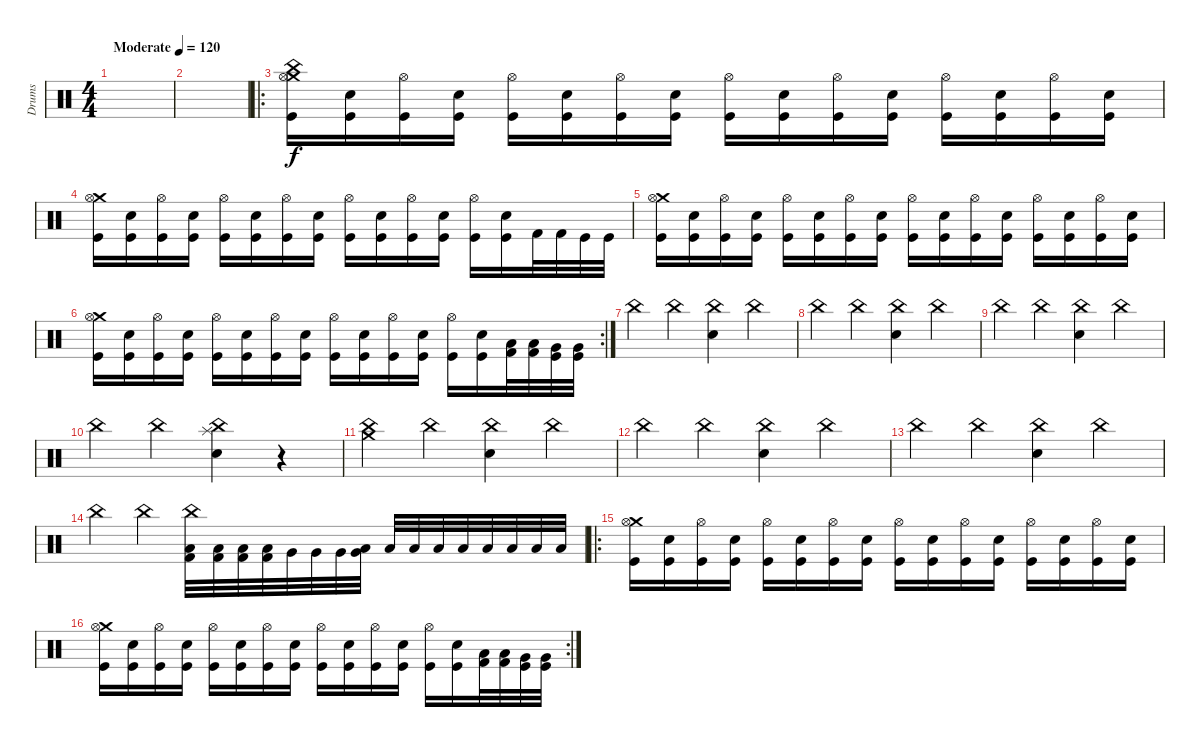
\track ("Drums" "Drums") {instrument percussion}
\staff {score}
\articulation defaults
\ts (4 4)
\tempo (120 "Moderate")
\clef neutral
\ks c
|
|
\ro
("China (hit)" "Crash medium (hit)" "Hi-Hat (open)" "Kick (hit)").16 ("Electric Snare (hit)" "Kick (hit)").16 ("Hi-Hat (open)" "Kick (hit)").16 ("Electric Snare (hit)" "Kick (hit)").16 ("Hi-Hat (open)" "Kick (hit)").16 ("Electric Snare (hit)" "Kick (hit)").16 ("Hi-Hat (open)" "Kick (hit)").16 ("Electric Snare (hit)" "Kick (hit)").16 ("Hi-Hat (open)" "Kick (hit)").16 ("Electric Snare (hit)" "Kick (hit)").16 ("Hi-Hat (open)" "Kick (hit)").16 ("Electric Snare (hit)" "Kick (hit)").16 ("Hi-Hat (open)" "Kick (hit)").16 ("Electric Snare (hit)" "Kick (hit)").16 ("Hi-Hat (open)" "Kick (hit)").16 ("Electric Snare (hit)" "Kick (hit)").16 |
("Crash medium (hit)" "Hi-Hat (open)" "Kick (hit)").16 ("Electric Snare (hit)" "Kick (hit)").16 ("Hi-Hat (open)" "Kick (hit)").16 ("Electric Snare (hit)" "Kick (hit)").16 ("Hi-Hat (open)" "Kick (hit)").16 ("Electric Snare (hit)" "Kick (hit)").16 ("Hi-Hat (open)" "Kick (hit)").16 ("Electric Snare (hit)" "Kick (hit)").16 ("Hi-Hat (open)" "Kick (hit)").16 ("Electric Snare (hit)" "Kick (hit)").16 ("Hi-Hat (open)" "Kick (hit)").16 ("Electric Snare (hit)" "Kick (hit)").16 ("Hi-Hat (open)" "Kick (hit)").16 ("Electric Snare (hit)" "Kick (hit)").16 "Kick (hit) 2".32 "Kick (hit) 2".32 "Kick (hit)".32 "Kick (hit)".32 |
("Crash medium (hit)" "Hi-Hat (open)" "Kick (hit)").16 ("Electric Snare (hit)" "Kick (hit)").16 ("Hi-Hat (open)" "Kick (hit)").16 ("Electric Snare (hit)" "Kick (hit)").16 ("Hi-Hat (open)" "Kick (hit)").16 ("Electric Snare (hit)" "Kick (hit)").16 ("Hi-Hat (open)" "Kick (hit)").16 ("Electric Snare (hit)" "Kick (hit)").16 ("Hi-Hat (open)" "Kick (hit)").16 ("Electric Snare (hit)" "Kick (hit)").16 ("Hi-Hat (open)" "Kick (hit)").16 ("Electric Snare (hit)" "Kick (hit)").16 ("Hi-Hat (open)" "Kick (hit)").16 ("Electric Snare (hit)" "Kick (hit)").16 ("Hi-Hat (open)" "Kick (hit)").16 ("Electric Snare (hit)" "Kick (hit)").16 |
\rc 2
("Crash medium (hit)" "Hi-Hat (open)" "Kick (hit)").16 ("Electric Snare (hit)" "Kick (hit)").16 ("Hi-Hat (open)" "Kick (hit)").16 ("Electric Snare (hit)" "Kick (hit)").16 ("Hi-Hat (open)" "Kick (hit)").16 ("Electric Snare (hit)" "Kick (hit)").16 ("Hi-Hat (open)" "Kick (hit)").16 ("Electric Snare (hit)" "Kick (hit)").16 ("Hi-Hat (open)" "Kick (hit)").16 ("Electric Snare (hit)" "Kick (hit)").16 ("Hi-Hat (open)" "Kick (hit)").16 ("Electric Snare (hit)" "Kick (hit)").16 ("Hi-Hat (open)" "Kick (hit)").16 ("Electric Snare (hit)" "Kick (hit)").16 ("Low Tom (hit)" "Kick (hit) 2").32 ("Low Tom (hit)" "Kick (hit) 2").32 ("Very Low Tom (hit)" "Kick (hit)").32 ("Very Low Tom (hit)" "Kick (hit)").32 |
"China (hit)".4 "China (hit)".4 ("China (hit)" "Electric Snare (hit)").4 "China (hit)".4 |
"China (hit)".4 "China (hit)".4 ("China (hit)" "Electric Snare (hit)").4 "China (hit)".4 |
"China (hit)".4 "China (hit)".4 ("China (hit)" "Electric Snare (hit)").4 "China (hit)".4 |
"China (hit)".4 "China (hit)".4 ("Splash (hit)" "China (hit)" "Electric Snare (hit)").4 r.4 |
("Crash medium (hit)" "China (hit)").4 "China (hit)".4 ("China (hit)" "Electric Snare (hit)").4 "China (hit)".4 |
"China (hit)".4 "China (hit)".4 ("China (hit)" "Electric Snare (hit)").4 "China (hit)".4 |
"China (hit)".4 "China (hit)".4 ("China (hit)" "Electric Snare (hit)").4 "China (hit)".4 |
"China (hit)".4 "China (hit)".4 ("China (hit)" "Low Tom (hit)" "Kick (hit) 2").32 ("Low Tom (hit)" "Kick (hit) 2").32 ("Low Tom (hit)" "Kick (hit) 2").32 ("Low Tom (hit)" "Kick (hit) 2").32 "Very Low Tom (hit)".32 "Very Low Tom (hit)".32 "Very Low Tom (hit)".32 ("Low Tom (hit)" "Very Low Tom (hit)").32 "Low Tom (hit)".32 "Low Tom (hit)".32 "Low Tom (hit)".32 "Low Floor Tom (hit)".32 "Low Floor Tom (hit)".32 "Low Floor Tom (hit)".32 "Low Floor Tom (hit)".32 "Low Floor Tom (hit)".32 |
\ro
("Crash medium (hit)" "Hi-Hat (open)" "Kick (hit)").16 ("Electric Snare (hit)" "Kick (hit)").16 ("Hi-Hat (open)" "Kick (hit)").16 ("Electric Snare (hit)" "Kick (hit)").16 ("Hi-Hat (open)" "Kick (hit)").16 ("Electric Snare (hit)" "Kick (hit)").16 ("Hi-Hat (open)" "Kick (hit)").16 ("Electric Snare (hit)" "Kick (hit)").16 ("Hi-Hat (open)" "Kick (hit)").16 ("Electric Snare (hit)" "Kick (hit)").16 ("Hi-Hat (open)" "Kick (hit)").16 ("Electric Snare (hit)" "Kick (hit)").16 ("Hi-Hat (open)" "Kick (hit)").16 ("Electric Snare (hit)" "Kick (hit)").16 ("Hi-Hat (open)" "Kick (hit)").16 ("Electric Snare (hit)" "Kick (hit)").16 |
\rc 2
("Crash medium (hit)" "Hi-Hat (open)" "Kick (hit)").16 ("Electric Snare (hit)" "Kick (hit)").16 ("Hi-Hat (open)" "Kick (hit)").16 ("Electric Snare (hit)" "Kick (hit)").16 ("Hi-Hat (open)" "Kick (hit)").16 ("Electric Snare (hit)" "Kick (hit)").16 ("Hi-Hat (open)" "Kick (hit)").16 ("Electric Snare (hit)" "Kick (hit)").16 ("Hi-Hat (open)" "Kick (hit)").16 ("Electric Snare (hit)" "Kick (hit)").16 ("Hi-Hat (open)" "Kick (hit)").16 ("Electric Snare (hit)" "Kick (hit)").16 ("Hi-Hat (open)" "Kick (hit)").16 ("Electric Snare (hit)" "Kick (hit)").16 ("Low Tom (hit)" "Kick (hit) 2").32 ("Low Tom (hit)" "Kick (hit) 2").32 ("Very Low Tom (hit)" "Kick (hit)").32 ("Very Low Tom (hit)" "Kick (hit)").32
